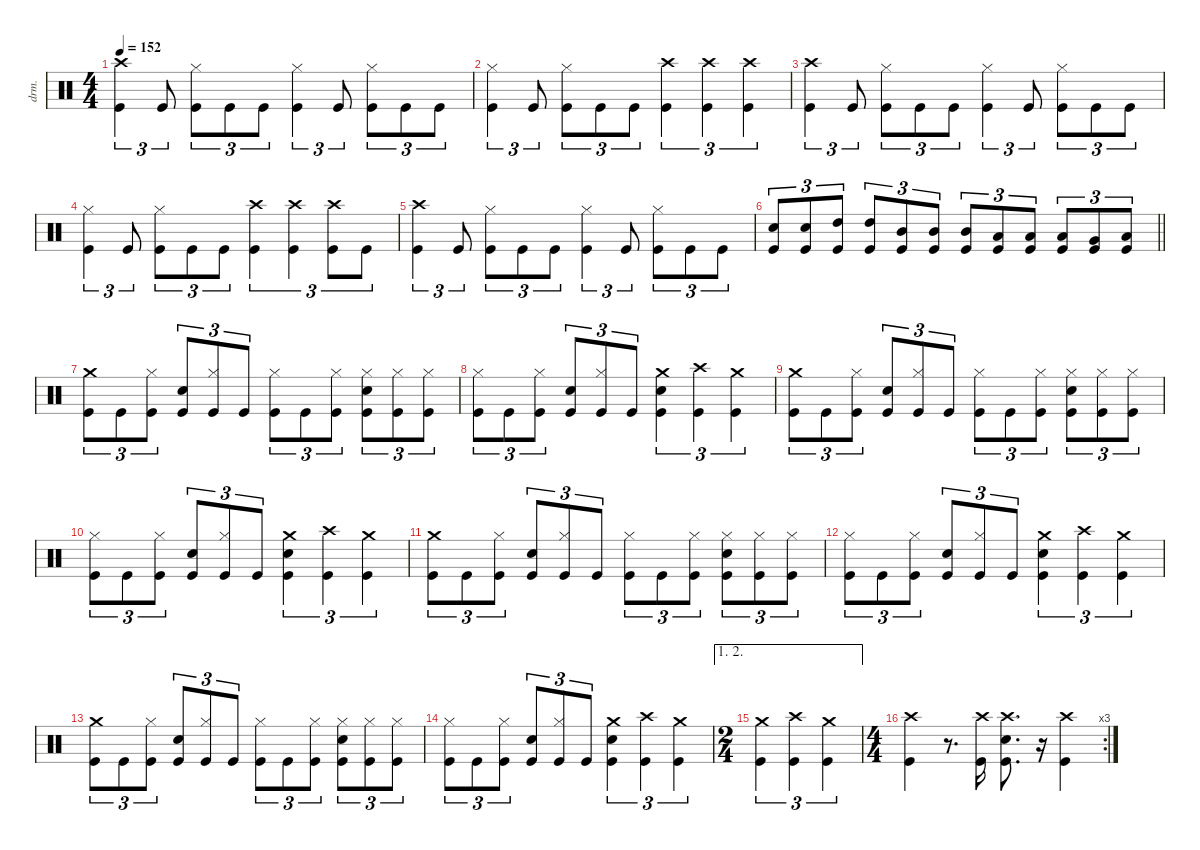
\defaultSystemsLayout 4
\hideDynamics
\bracketExtendMode nobrackets
\otherSystemsTrackNameOrientation horizontal
\track ("Nick Menza" "drm.") {instrument percussion}
\staff {score}
\articulation defaults
\ts (4 4)
\tempo 152
\clef neutral
\ks c
("Crash high (hit)" "Kick (hit)").4{tu (3 2) dy f beam Down} "Kick (hit)".8{tu (3 2) beam Up} ("Hi-Hat (closed)" "Kick (hit)").8{tu (3 2) beam Down} "Kick (hit)".8{tu (3 2) beam Down} "Kick (hit)".8{tu (3 2) beam Down} ("Hi-Hat (closed)" "Kick (hit)").4{tu (3 2) beam Down} "Kick (hit)".8{tu (3 2) beam Up} ("Hi-Hat (closed)" "Kick (hit)").8{tu (3 2) beam Down} "Kick (hit)".8{tu (3 2) beam Down} "Kick (hit)".8{tu (3 2) beam Down} |
("Hi-Hat (closed)" "Kick (hit)").4{tu (3 2) beam Down} "Kick (hit)".8{tu (3 2) beam Up} ("Hi-Hat (closed)" "Kick (hit)").8{tu (3 2) beam Down} "Kick (hit)".8{tu (3 2) beam Down} "Kick (hit)".8{tu (3 2) beam Down} ("Crash high (hit)" "Kick (hit)").4{tu (3 2) beam Down} ("Crash high (hit)" "Kick (hit)").4{tu (3 2) beam Down} ("Crash high (hit)" "Kick (hit)").4{tu (3 2) beam Down} |
("Crash high (hit)" "Kick (hit)").4{tu (3 2) beam Down} "Kick (hit)".8{tu (3 2) beam Up} ("Hi-Hat (closed)" "Kick (hit)").8{tu (3 2) beam Down} "Kick (hit)".8{tu (3 2) beam Down} "Kick (hit)".8{tu (3 2) beam Down} ("Hi-Hat (closed)" "Kick (hit)").4{tu (3 2) beam Down} "Kick (hit)".8{tu (3 2) beam Up} ("Hi-Hat (closed)" "Kick (hit)").8{tu (3 2) beam Down} "Kick (hit)".8{tu (3 2) beam Down} "Kick (hit)".8{tu (3 2) beam Down} |
("Hi-Hat (closed)" "Kick (hit)").4{tu (3 2) beam Down} "Kick (hit)".8{tu (3 2) beam Up} ("Hi-Hat (closed)" "Kick (hit)").8{tu (3 2) beam Down} "Kick (hit)".8{tu (3 2) beam Down} "Kick (hit)".8{tu (3 2) beam Down} ("Crash high (hit)" "Kick (hit)").4{tu (3 2) beam Down} ("Crash high (hit)" "Kick (hit)").4{tu (3 2) beam Down} ("Crash high (hit)" "Kick (hit)").8{tu (3 2) beam Down} "Kick (hit)".8{tu (3 2) beam Down} |
("Crash high (hit)" "Kick (hit)").4{tu (3 2) beam Down} "Kick (hit)".8{tu (3 2) beam Up} ("Hi-Hat (closed)" "Kick (hit)").8{tu (3 2) beam Down} "Kick (hit)".8{tu (3 2) beam Down} "Kick (hit)".8{tu (3 2) beam Down} ("Hi-Hat (closed)" "Kick (hit)").4{tu (3 2) beam Down} "Kick (hit)".8{tu (3 2) beam Up} ("Hi-Hat (closed)" "Kick (hit)").8{tu (3 2) beam Down} "Kick (hit)".8{tu (3 2) beam Down} "Kick (hit)".8{tu (3 2) beam Down} |
\barLineRight lightlight
("Snare (hit) 2" "Kick (hit)").8{tu (3 2) beam Up} ("Snare (hit) 2" "Kick (hit)").8{tu (3 2) beam Up} ("High Tom (hit)" "Kick (hit)").8{tu (3 2) beam Up} ("High Tom (hit)" "Kick (hit)").8{tu (3 2) beam Up} ("Mid Tom (hit)" "Kick (hit)").8{tu (3 2) beam Up} ("Mid Tom (hit)" "Kick (hit)").8{tu (3 2) beam Up} ("Mid Tom (hit)" "Kick (hit)").8{tu (3 2) beam Up} ("Low Tom (hit)" "Kick (hit)").8{tu (3 2) beam Up} ("Low Tom (hit)" "Kick (hit)").8{tu (3 2) beam Up} ("Low Tom (hit)" "Kick (hit)").8{tu (3 2) beam Up} ("Very Low Tom (hit)" "Kick (hit)").8{tu (3 2) beam Up} ("Low Floor Tom (hit)" "Kick (hit)").8{tu (3 2) beam Up} |
("Crash medium (hit)" "Kick (hit)").8{tu (3 2) beam Down} "Kick (hit)".8{tu (3 2) beam Down} ("Hi-Hat (closed)" "Kick (hit)").8{tu (3 2) beam Down} ("Snare (hit) 2" "Kick (hit)").8{tu (3 2) beam Up} ("Hi-Hat (closed)" "Kick (hit)").8{tu (3 2) beam Up} "Kick (hit)".8{tu (3 2) beam Up} ("Hi-Hat (closed)" "Kick (hit)").8{tu (3 2) beam Down} "Kick (hit)".8{tu (3 2) beam Down} ("Hi-Hat (closed)" "Kick (hit)").8{tu (3 2) beam Down} ("Hi-Hat (closed)" "Snare (hit) 2" "Kick (hit)").8{tu (3 2) beam Down} ("Hi-Hat (closed)" "Kick (hit)").8{tu (3 2) beam Down} ("Hi-Hat (closed)" "Kick (hit)").8{tu (3 2) beam Down} |
("Hi-Hat (closed)" "Kick (hit)").8{tu (3 2) beam Down} "Kick (hit)".8{tu (3 2) beam Down} ("Hi-Hat (closed)" "Kick (hit)").8{tu (3 2) beam Down} ("Snare (hit) 2" "Kick (hit)").8{tu (3 2) beam Up} ("Hi-Hat (closed)" "Kick (hit)").8{tu (3 2) beam Up} "Kick (hit)".8{tu (3 2) beam Up} ("Crash medium (hit)" "Snare (hit) 2" "Kick (hit)").4{tu (3 2) beam Down} ("Crash high (hit)" "Kick (hit)").4{tu (3 2) beam Down} ("Crash medium (hit)" "Kick (hit)").4{tu (3 2) beam Down} |
("Crash medium (hit)" "Kick (hit)").8{tu (3 2) beam Down} "Kick (hit)".8{tu (3 2) beam Down} ("Hi-Hat (closed)" "Kick (hit)").8{tu (3 2) beam Down} ("Snare (hit) 2" "Kick (hit)").8{tu (3 2) beam Up} ("Hi-Hat (closed)" "Kick (hit)").8{tu (3 2) beam Up} "Kick (hit)".8{tu (3 2) beam Up} ("Hi-Hat (closed)" "Kick (hit)").8{tu (3 2) beam Down} "Kick (hit)".8{tu (3 2) beam Down} ("Hi-Hat (closed)" "Kick (hit)").8{tu (3 2) beam Down} ("Hi-Hat (closed)" "Snare (hit) 2" "Kick (hit)").8{tu (3 2) beam Down} ("Hi-Hat (closed)" "Kick (hit)").8{tu (3 2) beam Down} ("Hi-Hat (closed)" "Kick (hit)").8{tu (3 2) beam Down} |
("Hi-Hat (closed)" "Kick (hit)").8{tu (3 2) beam Down} "Kick (hit)".8{tu (3 2) beam Down} ("Hi-Hat (closed)" "Kick (hit)").8{tu (3 2) beam Down} ("Snare (hit) 2" "Kick (hit)").8{tu (3 2) beam Up} ("Hi-Hat (closed)" "Kick (hit)").8{tu (3 2) beam Up} "Kick (hit)".8{tu (3 2) beam Up} ("Crash medium (hit)" "Snare (hit) 2" "Kick (hit)").4{tu (3 2) beam Down} ("Crash high (hit)" "Kick (hit)").4{tu (3 2) beam Down} ("Crash medium (hit)" "Kick (hit)").4{tu (3 2) beam Down} |
("Crash medium (hit)" "Kick (hit)").8{tu (3 2) beam Down} "Kick (hit)".8{tu (3 2) beam Down} ("Hi-Hat (closed)" "Kick (hit)").8{tu (3 2) beam Down} ("Snare (hit) 2" "Kick (hit)").8{tu (3 2) beam Up} ("Hi-Hat (closed)" "Kick (hit)").8{tu (3 2) beam Up} "Kick (hit)".8{tu (3 2) beam Up} ("Hi-Hat (closed)" "Kick (hit)").8{tu (3 2) beam Down} "Kick (hit)".8{tu (3 2) beam Down} ("Hi-Hat (closed)" "Kick (hit)").8{tu (3 2) beam Down} ("Hi-Hat (closed)" "Snare (hit) 2" "Kick (hit)").8{tu (3 2) beam Down} ("Hi-Hat (closed)" "Kick (hit)").8{tu (3 2) beam Down} ("Hi-Hat (closed)" "Kick (hit)").8{tu (3 2) beam Down} |
("Hi-Hat (closed)" "Kick (hit)").8{tu (3 2) beam Down} "Kick (hit)".8{tu (3 2) beam Down} ("Hi-Hat (closed)" "Kick (hit)").8{tu (3 2) beam Down} ("Snare (hit) 2" "Kick (hit)").8{tu (3 2) beam Up} ("Hi-Hat (closed)" "Kick (hit)").8{tu (3 2) beam Up} "Kick (hit)".8{tu (3 2) beam Up} ("Crash medium (hit)" "Snare (hit) 2" "Kick (hit)").4{tu (3 2) beam Down} ("Crash high (hit)" "Kick (hit)").4{tu (3 2) beam Down} ("Crash medium (hit)" "Kick (hit)").4{tu (3 2) beam Down} |
("Crash medium (hit)" "Kick (hit)").8{tu (3 2) beam Down} "Kick (hit)".8{tu (3 2) beam Down} ("Hi-Hat (closed)" "Kick (hit)").8{tu (3 2) beam Down} ("Snare (hit) 2" "Kick (hit)").8{tu (3 2) beam Up} ("Hi-Hat (closed)" "Kick (hit)").8{tu (3 2) beam Up} "Kick (hit)".8{tu (3 2) beam Up} ("Hi-Hat (closed)" "Kick (hit)").8{tu (3 2) beam Down} "Kick (hit)".8{tu (3 2) beam Down} ("Hi-Hat (closed)" "Kick (hit)").8{tu (3 2) beam Down} ("Hi-Hat (closed)" "Snare (hit) 2" "Kick (hit)").8{tu (3 2) beam Down} ("Hi-Hat (closed)" "Kick (hit)").8{tu (3 2) beam Down} ("Hi-Hat (closed)" "Kick (hit)").8{tu (3 2) beam Down} |
("Hi-Hat (closed)" "Kick (hit)").8{tu (3 2) beam Down} "Kick (hit)".8{tu (3 2) beam Down} ("Hi-Hat (closed)" "Kick (hit)").8{tu (3 2) beam Down} ("Snare (hit) 2" "Kick (hit)").8{tu (3 2) beam Up} ("Hi-Hat (closed)" "Kick (hit)").8{tu (3 2) beam Up} "Kick (hit)".8{tu (3 2) beam Up} ("Crash medium (hit)" "Snare (hit) 2" "Kick (hit)").4{tu (3 2) beam Down} ("Crash high (hit)" "Kick (hit)").4{tu (3 2) beam Down} ("Crash medium (hit)" "Kick (hit)").4{tu (3 2) beam Down} |
\ae (1 2)
\ts (2 4)
\beaming (8 2 2)
("Crash medium (hit)" "Kick (hit)").4{tu (3 2) beam Down} ("Crash high (hit)" "Kick (hit)").4{tu (3 2) beam Down} ("Crash medium (hit)" "Kick (hit)").4{tu (3 2) beam Down} |
\rc 3
\ts (4 4)
\beaming (8 2 2 2 2)
("Crash high (hit)" "Kick (hit)").4{beam Down} r.8{d beam Down} ("Crash high (hit)" "Kick (hit)").16{beam Down} ("Crash high (hit)" "Snare (hit) 2" "Kick (hit)").8{d beam Down} r.16{beam Down} ("Crash high (hit)" "Kick (hit)").4{beam Down}
